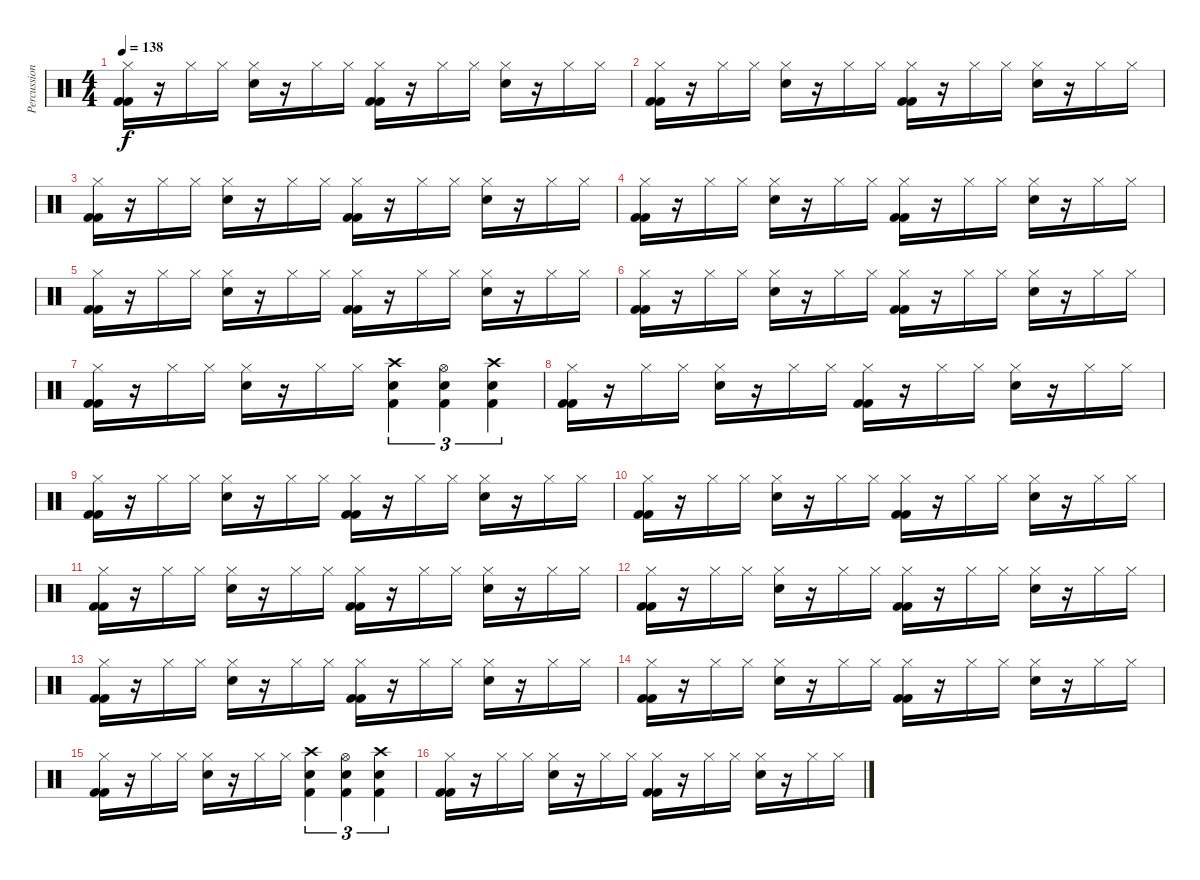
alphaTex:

\track ("Percussion" "Percussion") {instrument percussion}
\staff {score}
\articulation defaults
\ts (4 4)
\tempo 138
\clef neutral
\ks c
("Hi-Hat (closed)" "Kick (hit) 2" "Kick (hit) 2").16{dy f} r.16 "Hi-Hat (closed)".16 "Hi-Hat (closed)".16 ("Hi-Hat (closed)" "Snare (hit) 2").16 r.16 "Hi-Hat (closed)".16 "Hi-Hat (closed)".16 ("Hi-Hat (closed)" "Kick (hit) 2" "Kick (hit) 2").16 r.16 "Hi-Hat (closed)".16 "Hi-Hat (closed)".16 ("Hi-Hat (closed)" "Snare (hit) 2").16 r.16 "Hi-Hat (closed)".16 "Hi-Hat (closed)".16 |
("Hi-Hat (closed)" "Kick (hit) 2" "Kick (hit) 2").16 r.16 "Hi-Hat (closed)".16 "Hi-Hat (closed)".16 ("Hi-Hat (closed)" "Snare (hit) 2").16 r.16 "Hi-Hat (closed)".16 "Hi-Hat (closed)".16 ("Hi-Hat (closed)" "Kick (hit) 2" "Kick (hit) 2").16 r.16 "Hi-Hat (closed)".16 "Hi-Hat (closed)".16 ("Hi-Hat (closed)" "Snare (hit) 2").16 r.16 "Hi-Hat (closed)".16 "Hi-Hat (closed)".16 |
("Hi-Hat (closed)" "Kick (hit) 2" "Kick (hit) 2").16 r.16 "Hi-Hat (closed)".16 "Hi-Hat (closed)".16 ("Hi-Hat (closed)" "Snare (hit) 2").16 r.16 "Hi-Hat (closed)".16 "Hi-Hat (closed)".16 ("Hi-Hat (closed)" "Kick (hit) 2" "Kick (hit) 2").16 r.16 "Hi-Hat (closed)".16 "Hi-Hat (closed)".16 ("Hi-Hat (closed)" "Snare (hit) 2").16 r.16 "Hi-Hat (closed)".16 "Hi-Hat (closed)".16 |
("Hi-Hat (closed)" "Kick (hit) 2" "Kick (hit) 2").16 r.16 "Hi-Hat (closed)".16 "Hi-Hat (closed)".16 ("Hi-Hat (closed)" "Snare (hit) 2").16 r.16 "Hi-Hat (closed)".16 "Hi-Hat (closed)".16 ("Hi-Hat (closed)" "Kick (hit) 2" "Kick (hit) 2").16 r.16 "Hi-Hat (closed)".16 "Hi-Hat (closed)".16 ("Hi-Hat (closed)" "Snare (hit) 2").16 r.16 "Hi-Hat (closed)".16 "Hi-Hat (closed)".16 |
("Hi-Hat (closed)" "Kick (hit) 2" "Kick (hit) 2").16 r.16 "Hi-Hat (closed)".16 "Hi-Hat (closed)".16 ("Hi-Hat (closed)" "Snare (hit) 2").16 r.16 "Hi-Hat (closed)".16 "Hi-Hat (closed)".16 ("Hi-Hat (closed)" "Kick (hit) 2" "Kick (hit) 2").16 r.16 "Hi-Hat (closed)".16 "Hi-Hat (closed)".16 ("Hi-Hat (closed)" "Snare (hit) 2").16 r.16 "Hi-Hat (closed)".16 "Hi-Hat (closed)".16 |
("Hi-Hat (closed)" "Kick (hit) 2" "Kick (hit) 2").16 r.16 "Hi-Hat (closed)".16 "Hi-Hat (closed)".16 ("Hi-Hat (closed)" "Snare (hit) 2").16 r.16 "Hi-Hat (closed)".16 "Hi-Hat (closed)".16 ("Hi-Hat (closed)" "Kick (hit) 2" "Kick (hit) 2").16 r.16 "Hi-Hat (closed)".16 "Hi-Hat (closed)".16 ("Hi-Hat (closed)" "Snare (hit) 2").16 r.16 "Hi-Hat (closed)".16 "Hi-Hat (closed)".16 |
("Hi-Hat (closed)" "Kick (hit) 2" "Kick (hit) 2").16 r.16 "Hi-Hat (closed)".16 "Hi-Hat (closed)".16 ("Hi-Hat (closed)" "Snare (hit) 2").16 r.16 "Hi-Hat (closed)".16 "Hi-Hat (closed)".16 ("Crash high (hit)" "Snare (hit) 2" "Kick (hit) 2").4{tu (3 2)} ("Hi-Hat (open)" "Snare (hit) 2" "Kick (hit) 2").4{tu (3 2)} ("Crash high (hit)" "Snare (hit) 2" "Kick (hit) 2").4{tu (3 2)} |
("Hi-Hat (closed)" "Kick (hit) 2" "Kick (hit) 2").16 r.16 "Hi-Hat (closed)".16 "Hi-Hat (closed)".16 ("Hi-Hat (closed)" "Snare (hit) 2").16 r.16 "Hi-Hat (closed)".16 "Hi-Hat (closed)".16 ("Hi-Hat (closed)" "Kick (hit) 2" "Kick (hit) 2").16 r.16 "Hi-Hat (closed)".16 "Hi-Hat (closed)".16 ("Hi-Hat (closed)" "Snare (hit) 2").16 r.16 "Hi-Hat (closed)".16 "Hi-Hat (closed)".16 |
("Hi-Hat (closed)" "Kick (hit) 2" "Kick (hit) 2").16 r.16 "Hi-Hat (closed)".16 "Hi-Hat (closed)".16 ("Hi-Hat (closed)" "Snare (hit) 2").16 r.16 "Hi-Hat (closed)".16 "Hi-Hat (closed)".16 ("Hi-Hat (closed)" "Kick (hit) 2" "Kick (hit) 2").16 r.16 "Hi-Hat (closed)".16 "Hi-Hat (closed)".16 ("Hi-Hat (closed)" "Snare (hit) 2").16 r.16 "Hi-Hat (closed)".16 "Hi-Hat (closed)".16 |
("Hi-Hat (closed)" "Kick (hit) 2" "Kick (hit) 2").16 r.16 "Hi-Hat (closed)".16 "Hi-Hat (closed)".16 ("Hi-Hat (closed)" "Snare (hit) 2").16 r.16 "Hi-Hat (closed)".16 "Hi-Hat (closed)".16 ("Hi-Hat (closed)" "Kick (hit) 2" "Kick (hit) 2").16 r.16 "Hi-Hat (closed)".16 "Hi-Hat (closed)".16 ("Hi-Hat (closed)" "Snare (hit) 2").16 r.16 "Hi-Hat (closed)".16 "Hi-Hat (closed)".16 |
("Hi-Hat (closed)" "Kick (hit) 2" "Kick (hit) 2").16 r.16 "Hi-Hat (closed)".16 "Hi-Hat (closed)".16 ("Hi-Hat (closed)" "Snare (hit) 2").16 r.16 "Hi-Hat (closed)".16 "Hi-Hat (closed)".16 ("Hi-Hat (closed)" "Kick (hit) 2" "Kick (hit) 2").16 r.16 "Hi-Hat (closed)".16 "Hi-Hat (closed)".16 ("Hi-Hat (closed)" "Snare (hit) 2").16 r.16 "Hi-Hat (closed)".16 "Hi-Hat (closed)".16 |
("Hi-Hat (closed)" "Kick (hit) 2" "Kick (hit) 2").16 r.16 "Hi-Hat (closed)".16 "Hi-Hat (closed)".16 ("Hi-Hat (closed)" "Snare (hit) 2").16 r.16 "Hi-Hat (closed)".16 "Hi-Hat (closed)".16 ("Hi-Hat (closed)" "Kick (hit) 2" "Kick (hit) 2").16 r.16 "Hi-Hat (closed)".16 "Hi-Hat (closed)".16 ("Hi-Hat (closed)" "Snare (hit) 2").16 r.16 "Hi-Hat (closed)".16 "Hi-Hat (closed)".16 |
("Hi-Hat (closed)" "Kick (hit) 2" "Kick (hit) 2").16 r.16 "Hi-Hat (closed)".16 "Hi-Hat (closed)".16 ("Hi-Hat (closed)" "Snare (hit) 2").16 r.16 "Hi-Hat (closed)".16 "Hi-Hat (closed)".16 ("Hi-Hat (closed)" "Kick (hit) 2" "Kick (hit) 2").16 r.16 "Hi-Hat (closed)".16 "Hi-Hat (closed)".16 ("Hi-Hat (closed)" "Snare (hit) 2").16 r.16 "Hi-Hat (closed)".16 "Hi-Hat (closed)".16 |
("Hi-Hat (closed)" "Kick (hit) 2" "Kick (hit) 2").16 r.16 "Hi-Hat (closed)".16 "Hi-Hat (closed)".16 ("Hi-Hat (closed)" "Snare (hit) 2").16 r.16 "Hi-Hat (closed)".16 "Hi-Hat (closed)".16 ("Hi-Hat (closed)" "Kick (hit) 2" "Kick (hit) 2").16 r.16 "Hi-Hat (closed)".16 "Hi-Hat (closed)".16 ("Hi-Hat (closed)" "Snare (hit) 2").16 r.16 "Hi-Hat (closed)".16 "Hi-Hat (closed)".16 |
("Hi-Hat (closed)" "Kick (hit) 2" "Kick (hit) 2").16 r.16 "Hi-Hat (closed)".16 "Hi-Hat (closed)".16 ("Hi-Hat (closed)" "Snare (hit) 2").16 r.16 "Hi-Hat (closed)".16 "Hi-Hat (closed)".16 ("Crash high (hit)" "Snare (hit) 2" "Kick (hit) 2").4{tu (3 2)} ("Hi-Hat (open)" "Snare (hit) 2" "Kick (hit) 2").4{tu (3 2)} ("Crash high (hit)" "Snare (hit) 2" "Kick (hit) 2").4{tu (3 2)} |
("Hi-Hat (closed)" "Kick (hit) 2" "Kick (hit) 2").16 r.16 "Hi-Hat (closed)".16 "Hi-Hat (closed)".16 ("Hi-Hat (closed)" "Snare (hit) 2").16 r.16 "Hi-Hat (closed)".16 "Hi-Hat (closed)".16 ("Hi-Hat (closed)" "Kick (hit) 2" "Kick (hit) 2").16 r.16 "Hi-Hat (closed)".16 "Hi-Hat (closed)".16 ("Hi-Hat (closed)" "Snare (hit) 2").16 r.16 "Hi-Hat (closed)".16 "Hi-Hat (closed)".16
